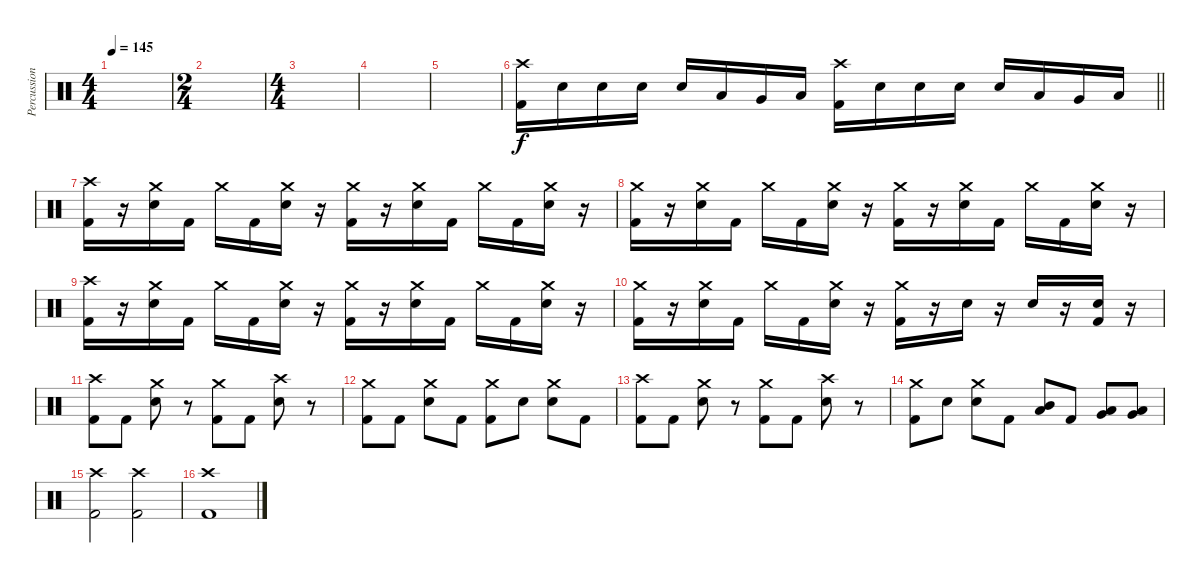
\track ("Percussion" "Percussion") {instrument percussion}
\staff {score}
\articulation defaults
\ts (4 4)
\tempo 145
\clef neutral
\ks c
|
\ts (2 4)
|
\ts (4 4)
|
|
|
\barLineRight lightlight
("Crash high (hit)" "Kick (hit) 2").16 "Electric Snare (hit)".16 "Electric Snare (hit)".16 "Electric Snare (hit)".16 "Electric Snare (hit)".16 "Low Tom (hit)".16 "Very Low Tom (hit)".16 "Low Floor Tom (hit)".16 ("Crash high (hit)" "Kick (hit) 2").16 "Electric Snare (hit)".16 "Electric Snare (hit)".16 "Electric Snare (hit)".16 "Electric Snare (hit)".16 "Low Tom (hit)".16 "Very Low Tom (hit)".16 "Low Floor Tom (hit)".16 |
("Crash high (hit)" "Kick (hit) 2").16 r.16 ("Crash medium (hit)" "Electric Snare (hit)").16 "Kick (hit) 2".16 "Crash medium (hit)".16 "Kick (hit) 2".16 ("Crash medium (hit)" "Electric Snare (hit)").16 r.16 ("Crash medium (hit)" "Kick (hit) 2").16 r.16 ("Crash medium (hit)" "Electric Snare (hit)").16 "Kick (hit) 2".16 "Crash medium (hit)".16 "Kick (hit) 2".16 ("Crash medium (hit)" "Electric Snare (hit)").16 r.16 |
("Crash medium (hit)" "Kick (hit) 2").16 r.16 ("Crash medium (hit)" "Electric Snare (hit)").16 "Kick (hit) 2".16 "Crash medium (hit)".16 "Kick (hit) 2".16 ("Crash medium (hit)" "Electric Snare (hit)").16 r.16 ("Crash medium (hit)" "Kick (hit) 2").16 r.16 ("Crash medium (hit)" "Electric Snare (hit)").16 "Kick (hit) 2".16 "Crash medium (hit)".16 "Kick (hit) 2".16 ("Crash medium (hit)" "Electric Snare (hit)").16 r.16 |
("Crash high (hit)" "Kick (hit) 2").16 r.16 ("Crash medium (hit)" "Electric Snare (hit)").16 "Kick (hit) 2".16 "Crash medium (hit)".16 "Kick (hit) 2".16 ("Crash medium (hit)" "Electric Snare (hit)").16 r.16 ("Crash medium (hit)" "Kick (hit) 2").16 r.16 ("Crash medium (hit)" "Electric Snare (hit)").16 "Kick (hit) 2".16 "Crash medium (hit)".16 "Kick (hit) 2".16 ("Crash medium (hit)" "Electric Snare (hit)").16 r.16 |
("Crash medium (hit)" "Kick (hit) 2").16 r.16 ("Crash medium (hit)" "Electric Snare (hit)").16 "Kick (hit) 2".16 "Crash medium (hit)".16 "Kick (hit) 2".16 ("Crash medium (hit)" "Electric Snare (hit)").16 r.16 ("Crash medium (hit)" "Kick (hit) 2").16 r.16 "Electric Snare (hit)".16 r.16 "Electric Snare (hit)".16 r.16 ("Electric Snare (hit)" "Kick (hit) 2").16 r.16 |
("Crash high (hit)" "Kick (hit) 2").8 "Kick (hit) 2".8 ("Crash medium (hit)" "Electric Snare (hit)").8 r.8 ("Crash medium (hit)" "Kick (hit) 2").8 "Kick (hit) 2".8 ("Crash high (hit)" "Electric Snare (hit)").8 r.8 |
("Crash medium (hit)" "Kick (hit) 2").8 "Kick (hit) 2".8 ("Crash medium (hit)" "Electric Snare (hit)").8 "Kick (hit) 2".8 ("Crash medium (hit)" "Kick (hit) 2").8 "Electric Snare (hit)".8 ("Crash medium (hit)" "Electric Snare (hit)").8 "Kick (hit) 2".8 |
("Crash high (hit)" "Kick (hit) 2").8 "Kick (hit) 2".8 ("Crash medium (hit)" "Electric Snare (hit)").8 r.8 ("Crash medium (hit)" "Kick (hit) 2").8 "Kick (hit) 2".8 ("Crash high (hit)" "Electric Snare (hit)").8 r.8 |
("Crash medium (hit)" "Kick (hit) 2").8 "Electric Snare (hit)".8 ("Crash medium (hit)" "Electric Snare (hit)").8 "Kick (hit) 2".8 ("Mid Tom (hit)" "Low Tom (hit)").8 "Kick (hit) 2".8 ("Low Tom (hit)" "Very Low Tom (hit)").8 ("Very Low Tom (hit)" "Low Floor Tom (hit)").8 |
("Crash high (hit)" "Kick (hit) 2").2 ("Crash high (hit)" "Kick (hit) 2").2 |
("Crash high (hit)" "Kick (hit) 2").1
